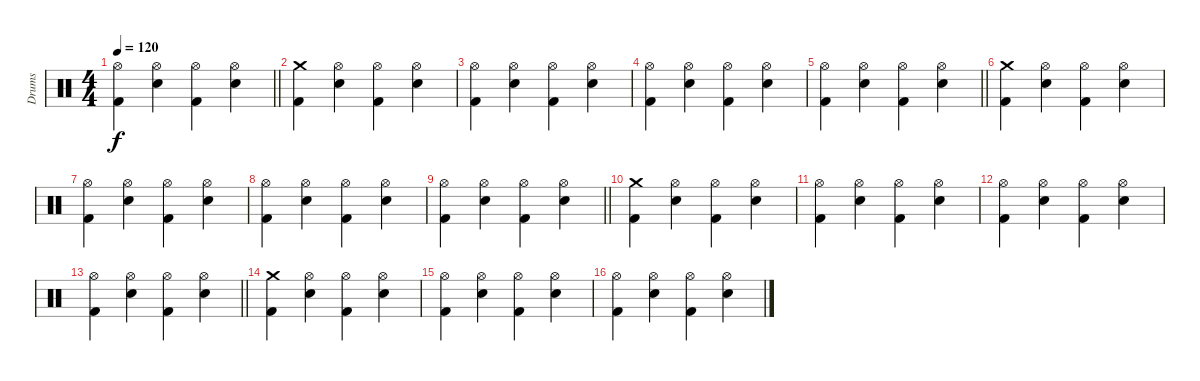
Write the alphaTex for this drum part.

\track ("Drums" "Drums") {instrument percussion}
\staff {score}
\articulation defaults
\ts (4 4)
\tempo 120
\clef neutral
\barLineRight lightlight
\ks c
("Hi-Hat (open)" "Kick (hit) 2").4{dy f} ("Hi-Hat (open)" "Electric Snare (hit)").4 ("Hi-Hat (open)" "Kick (hit) 2").4 ("Hi-Hat (open)" "Electric Snare (hit)").4 |
("Crash medium (hit)" "Kick (hit) 2").4 ("Hi-Hat (open)" "Electric Snare (hit)").4 ("Hi-Hat (open)" "Kick (hit) 2").4 ("Hi-Hat (open)" "Electric Snare (hit)").4 |
("Hi-Hat (open)" "Kick (hit) 2").4 ("Hi-Hat (open)" "Electric Snare (hit)").4 ("Hi-Hat (open)" "Kick (hit) 2").4 ("Hi-Hat (open)" "Electric Snare (hit)").4 |
("Hi-Hat (open)" "Kick (hit) 2").4 ("Hi-Hat (open)" "Electric Snare (hit)").4 ("Hi-Hat (open)" "Kick (hit) 2").4 ("Hi-Hat (open)" "Electric Snare (hit)").4 |
\barLineRight lightlight
("Hi-Hat (open)" "Kick (hit) 2").4 ("Hi-Hat (open)" "Electric Snare (hit)").4 ("Hi-Hat (open)" "Kick (hit) 2").4 ("Hi-Hat (open)" "Electric Snare (hit)").4 |
("Crash medium (hit)" "Kick (hit) 2").4 ("Hi-Hat (open)" "Electric Snare (hit)").4 ("Hi-Hat (open)" "Kick (hit) 2").4 ("Hi-Hat (open)" "Electric Snare (hit)").4 |
("Hi-Hat (open)" "Kick (hit) 2").4 ("Hi-Hat (open)" "Electric Snare (hit)").4 ("Hi-Hat (open)" "Kick (hit) 2").4 ("Hi-Hat (open)" "Electric Snare (hit)").4 |
("Hi-Hat (open)" "Kick (hit) 2").4 ("Hi-Hat (open)" "Electric Snare (hit)").4 ("Hi-Hat (open)" "Kick (hit) 2").4 ("Hi-Hat (open)" "Electric Snare (hit)").4 |
\barLineRight lightlight
("Hi-Hat (open)" "Kick (hit) 2").4 ("Hi-Hat (open)" "Electric Snare (hit)").4 ("Hi-Hat (open)" "Kick (hit) 2").4 ("Hi-Hat (open)" "Electric Snare (hit)").4 |
("Crash medium (hit)" "Kick (hit) 2").4 ("Hi-Hat (open)" "Electric Snare (hit)").4 ("Hi-Hat (open)" "Kick (hit) 2").4 ("Hi-Hat (open)" "Electric Snare (hit)").4 |
("Hi-Hat (open)" "Kick (hit) 2").4 ("Hi-Hat (open)" "Electric Snare (hit)").4 ("Hi-Hat (open)" "Kick (hit) 2").4 ("Hi-Hat (open)" "Electric Snare (hit)").4 |
("Hi-Hat (open)" "Kick (hit) 2").4 ("Hi-Hat (open)" "Electric Snare (hit)").4 ("Hi-Hat (open)" "Kick (hit) 2").4 ("Hi-Hat (open)" "Electric Snare (hit)").4 |
\barLineRight lightlight
("Hi-Hat (open)" "Kick (hit) 2").4 ("Hi-Hat (open)" "Electric Snare (hit)").4 ("Hi-Hat (open)" "Kick (hit) 2").4 ("Hi-Hat (open)" "Electric Snare (hit)").4 |
("Crash medium (hit)" "Kick (hit) 2").4 ("Hi-Hat (open)" "Electric Snare (hit)").4 ("Hi-Hat (open)" "Kick (hit) 2").4 ("Hi-Hat (open)" "Electric Snare (hit)").4 |
("Hi-Hat (open)" "Kick (hit) 2").4 ("Hi-Hat (open)" "Electric Snare (hit)").4 ("Hi-Hat (open)" "Kick (hit) 2").4 ("Hi-Hat (open)" "Electric Snare (hit)").4 |
("Hi-Hat (open)" "Kick (hit) 2").4 ("Hi-Hat (open)" "Electric Snare (hit)").4 ("Hi-Hat (open)" "Kick (hit) 2").4 ("Hi-Hat (open)" "Electric Snare (hit)").4
